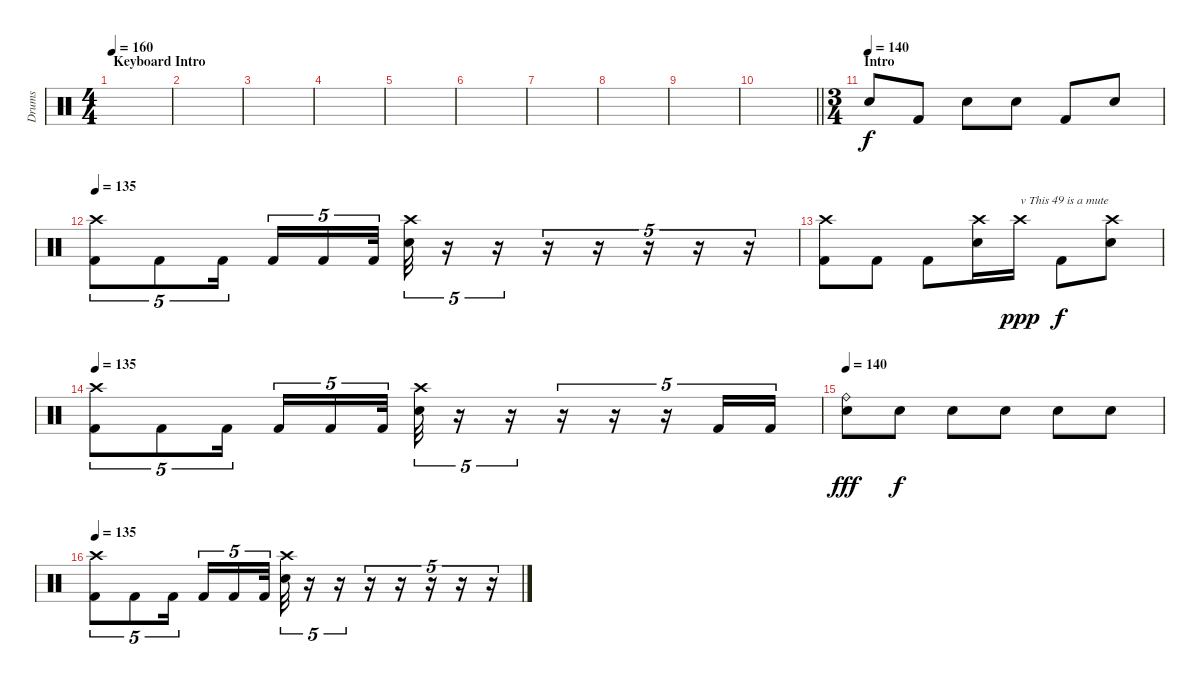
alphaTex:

\track ("Drums" "Drums") {instrument percussion}
\staff {score}
\articulation defaults
\ts (4 4)
\section ("" "Keyboard Intro")
\tempo 160
\clef neutral
\ks c
|
|
|
|
|
|
|
|
|
\barLineRight lightlight
|
\ts (3 4)
\section ("" "Intro")
\tempo (140)
"Electric Snare (hit)".8 "Kick (hit) 2".8 "Electric Snare (hit)".8 "Electric Snare (hit)".8 "Kick (hit) 2".8 "Electric Snare (hit)".8 |
\tempo 135
("Crash high (hit)" "Kick (hit) 2").8{tu (5 4)} "Kick (hit) 2".8{tu (5 4)} "Kick (hit) 2".16{tu (5 4)} "Kick (hit) 2".16{tu (5 4)} "Kick (hit) 2".16{tu (5 4)} "Kick (hit) 2".32{tu (5 4)} ("Crash high (hit)" "Electric Snare (hit)").32{tu (5 4)} r.16{tu (5 4)} r.16{tu (5 4)} r.16{tu (5 4)} r.16{tu (5 4)} r.16{tu (5 4)} r.16{tu (5 4)} r.16{tu (5 4)} |
("Crash high (hit)" "Kick (hit) 2").8 "Kick (hit) 2".8 "Kick (hit) 2".8 ("Crash high (hit)" "Electric Snare (hit)").16 "Crash high (hit)".16{txt "v This 49 is a mute" dy ppp} "Kick (hit) 2".8{dy f} ("Crash high (hit)" "Electric Snare (hit)").8 |
\tempo 135
("Crash high (hit)" "Kick (hit) 2").8{tu (5 4)} "Kick (hit) 2".8{tu (5 4)} "Kick (hit) 2".16{tu (5 4)} "Kick (hit) 2".16{tu (5 4)} "Kick (hit) 2".16{tu (5 4)} "Kick (hit) 2".32{tu (5 4)} ("Crash high (hit)" "Electric Snare (hit)").32{tu (5 4)} r.16{tu (5 4)} r.16{tu (5 4)} r.16{tu (5 4)} r.16{tu (5 4)} r.16{tu (5 4)} "Kick (hit) 2".16{tu (5 4)} "Kick (hit) 2".16{tu (5 4)} |
\tempo 140
("Ride (bell)" "Electric Snare (hit)").8{dy fff} "Electric Snare (hit)".8{dy f} "Electric Snare (hit)".8 "Electric Snare (hit)".8 "Electric Snare (hit)".8 "Electric Snare (hit)".8 |
\tempo 135
("Crash high (hit)" "Kick (hit) 2").8{tu (5 4)} "Kick (hit) 2".8{tu (5 4)} "Kick (hit) 2".16{tu (5 4)} "Kick (hit) 2".16{tu (5 4)} "Kick (hit) 2".16{tu (5 4)} "Kick (hit) 2".32{tu (5 4)} ("Crash high (hit)" "Electric Snare (hit)").32{tu (5 4)} r.16{tu (5 4)} r.16{tu (5 4)} r.16{tu (5 4)} r.16{tu (5 4)} r.16{tu (5 4)} r.16{tu (5 4)} r.16{tu (5 4)}
